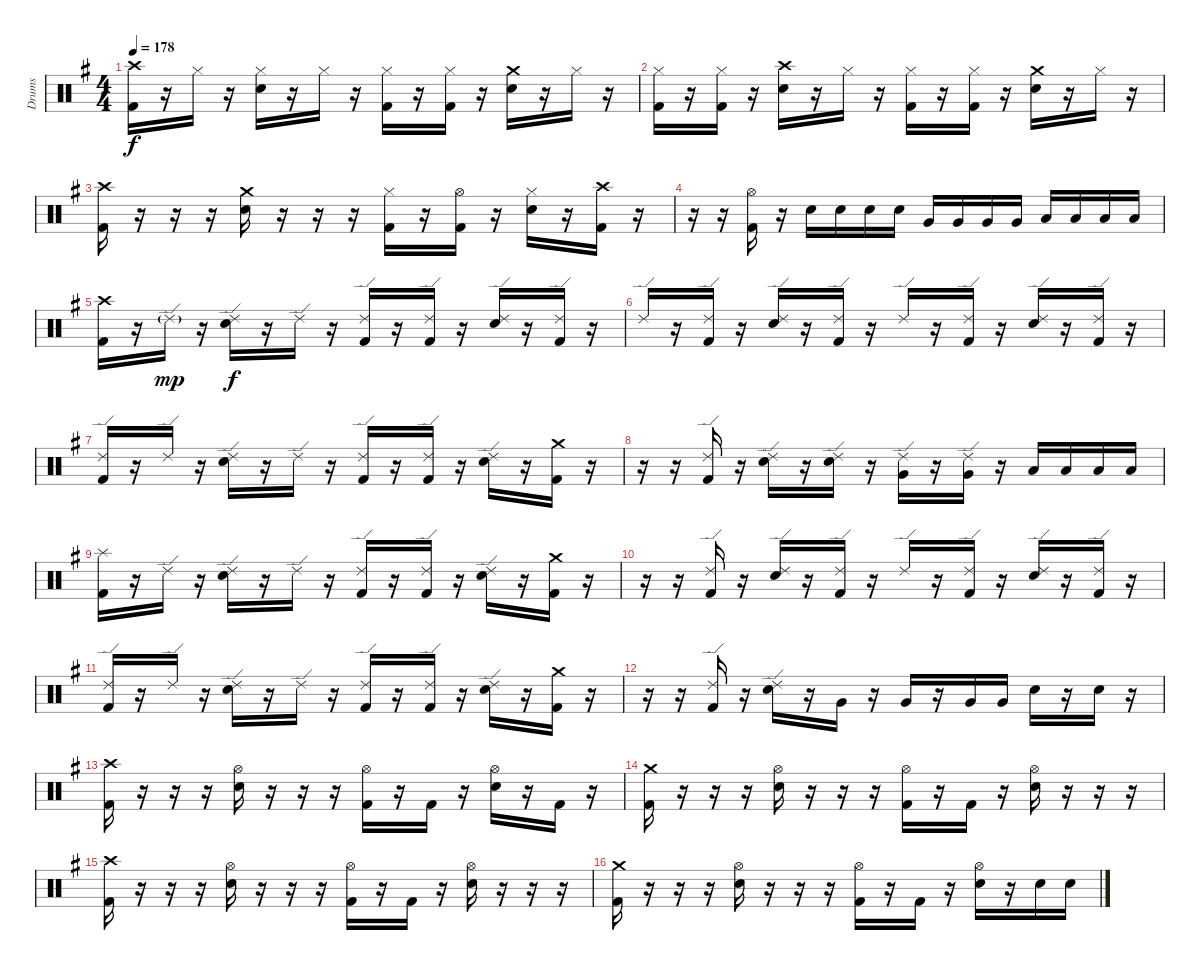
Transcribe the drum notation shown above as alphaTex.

\track ("Drums" "Drums") {instrument percussion}
\staff {score}
\articulation defaults
\ts (4 4)
\tempo 178
\clef neutral
\ks g
("Crash high (hit)" "Kick (hit) 2").16{dy f} r.16 "Hi-Hat (closed)".16 r.16 ("Hi-Hat (closed)" "Electric Snare (hit)").16 r.16 "Hi-Hat (closed)".16 r.16 ("Hi-Hat (closed)" "Kick (hit) 2").16 r.16 ("Hi-Hat (closed)" "Kick (hit) 2").16 r.16 ("Crash medium (hit)" "Electric Snare (hit)").16 r.16 "Hi-Hat (closed)".16 r.16 |
("Hi-Hat (closed)" "Kick (hit) 2").16 r.16 ("Hi-Hat (closed)" "Kick (hit) 2").16 r.16 ("Crash high (hit)" "Electric Snare (hit)").16 r.16 "Hi-Hat (closed)".16 r.16 ("Hi-Hat (closed)" "Kick (hit) 2").16 r.16 ("Hi-Hat (closed)" "Kick (hit) 2").16 r.16 ("Crash medium (hit)" "Electric Snare (hit)").16 r.16 "Hi-Hat (closed)".16 r.16 |
("Crash high (hit)" "Kick (hit) 2").16 r.16 r.16 r.16 ("Crash medium (hit)" "Electric Snare (hit)").16 r.16 r.16 r.16 ("Hi-Hat (closed)" "Kick (hit) 2").16 r.16 ("Hi-Hat (open)" "Kick (hit) 2").16 r.16 ("Hi-Hat (closed)" "Electric Snare (hit)").16 r.16 ("Crash high (hit)" "Kick (hit) 2").16 r.16 |
r.16 r.16 ("Hi-Hat (open)" "Kick (hit) 2").16 r.16 "Electric Snare (hit)".16 "Electric Snare (hit)".16 "Electric Snare (hit)".16 "Electric Snare (hit)".16 "Very Low Tom (hit)".16 "Very Low Tom (hit)".16 "Very Low Tom (hit)".16 "Very Low Tom (hit)".16 "Low Floor Tom (hit)".16 "Low Floor Tom (hit)".16 "Low Floor Tom (hit)".16 "Low Floor Tom (hit)".16 |
("Crash high (hit)" "Kick (hit) 2").16 r.16 "Ride (edge) 2"{g}.16{dy mp} r.16 ("Ride (edge) 2" "Electric Snare (hit)").16{dy f} r.16 "Ride (edge) 2".16 r.16 ("Ride (edge) 2" "Kick (hit) 2").16 r.16 ("Ride (edge) 2" "Kick (hit) 2").16 r.16 ("Ride (edge) 2" "Electric Snare (hit)").16 r.16 ("Ride (edge) 2" "Kick (hit) 2").16 r.16 |
"Ride (edge) 2".16 r.16 ("Ride (edge) 2" "Kick (hit) 2").16 r.16 ("Ride (edge) 2" "Electric Snare (hit)").16 r.16 ("Ride (edge) 2" "Kick (hit) 2").16 r.16 "Ride (edge) 2".16 r.16 ("Ride (edge) 2" "Kick (hit) 2").16 r.16 ("Ride (edge) 2" "Electric Snare (hit)").16 r.16 ("Ride (edge) 2" "Kick (hit) 2").16 r.16 |
("Ride (edge) 2" "Kick (hit) 2").16 r.16 "Ride (edge) 2".16 r.16 ("Ride (edge) 2" "Electric Snare (hit)").16 r.16 "Ride (edge) 2".16 r.16 ("Ride (edge) 2" "Kick (hit) 2").16 r.16 ("Ride (edge) 2" "Kick (hit) 2").16 r.16 ("Ride (edge) 2" "Electric Snare (hit)").16 r.16 ("Crash medium (hit)" "Kick (hit) 2").16 r.16 |
r.16 r.16 ("Ride (edge) 2" "Kick (hit) 2").16 r.16 ("Ride (edge) 2" "Electric Snare (hit)").16 r.16 ("Ride (edge) 2" "Electric Snare (hit)").16 r.16 ("Ride (edge) 2" "Very Low Tom (hit)").16 r.16 ("Ride (edge) 2" "Very Low Tom (hit)").16 r.16 "Low Floor Tom (hit)".16 "Low Floor Tom (hit)".16 "Low Floor Tom (hit)".16 "Low Floor Tom (hit)".16 |
("Splash (hit)" "Kick (hit) 2").16 r.16 "Ride (edge) 2".16 r.16 ("Ride (edge) 2" "Electric Snare (hit)").16 r.16 "Ride (edge) 2".16 r.16 ("Ride (edge) 2" "Kick (hit) 2").16 r.16 ("Ride (edge) 2" "Kick (hit) 2").16 r.16 ("Ride (edge) 2" "Electric Snare (hit)").16 r.16 ("Crash medium (hit)" "Kick (hit) 2").16 r.16 |
r.16 r.16 ("Ride (edge) 2" "Kick (hit) 2").16 r.16 ("Ride (edge) 2" "Electric Snare (hit)").16 r.16 ("Ride (edge) 2" "Kick (hit) 2").16 r.16 "Ride (edge) 2".16 r.16 ("Ride (edge) 2" "Kick (hit) 2").16 r.16 ("Ride (edge) 2" "Electric Snare (hit)").16 r.16 ("Ride (edge) 2" "Kick (hit) 2").16 r.16 |
("Ride (edge) 2" "Kick (hit) 2").16 r.16 "Ride (edge) 2".16 r.16 ("Ride (edge) 2" "Electric Snare (hit)").16 r.16 "Ride (edge) 2".16 r.16 ("Ride (edge) 2" "Kick (hit) 2").16 r.16 ("Ride (edge) 2" "Kick (hit) 2").16 r.16 ("Ride (edge) 2" "Electric Snare (hit)").16 r.16 ("Crash medium (hit)" "Kick (hit) 2").16 r.16 |
r.16 r.16 ("Ride (edge) 2" "Kick (hit) 2").16 r.16 ("Ride (edge) 2" "Electric Snare (hit)").16 r.16 "Very Low Tom (hit)".16 r.16 "Very Low Tom (hit)".16 r.16 "Very Low Tom (hit)".16 "Very Low Tom (hit)".16 "Electric Snare (hit)".16 r.16 "Electric Snare (hit)".16 r.16 |
("Crash high (hit)" "Kick (hit) 2").16 r.16 r.16 r.16 ("Hi-Hat (open)" "Electric Snare (hit)").16 r.16 r.16 r.16 ("Hi-Hat (open)" "Kick (hit) 2").16 r.16 "Kick (hit) 2".16 r.16 ("Hi-Hat (open)" "Electric Snare (hit)").16 r.16 "Kick (hit) 2".16 r.16 |
("Crash medium (hit)" "Kick (hit) 2").16 r.16 r.16 r.16 ("Hi-Hat (open)" "Electric Snare (hit)").16 r.16 r.16 r.16 ("Hi-Hat (open)" "Kick (hit) 2").16 r.16 "Kick (hit) 2".16 r.16 ("Hi-Hat (open)" "Electric Snare (hit)").16 r.16 r.16 r.16 |
("Crash high (hit)" "Kick (hit) 2").16 r.16 r.16 r.16 ("Hi-Hat (open)" "Electric Snare (hit)").16 r.16 r.16 r.16 ("Hi-Hat (open)" "Kick (hit) 2").16 r.16 "Kick (hit) 2".16 r.16 ("Hi-Hat (open)" "Electric Snare (hit)").16 r.16 r.16 r.16 |
("Crash medium (hit)" "Kick (hit) 2").16 r.16 r.16 r.16 ("Hi-Hat (open)" "Electric Snare (hit)").16 r.16 r.16 r.16 ("Hi-Hat (open)" "Kick (hit) 2").16 r.16 "Kick (hit) 2".16 r.16 ("Hi-Hat (open)" "Electric Snare (hit)").16 r.16 "Electric Snare (hit)".16 "Electric Snare (hit)".16
